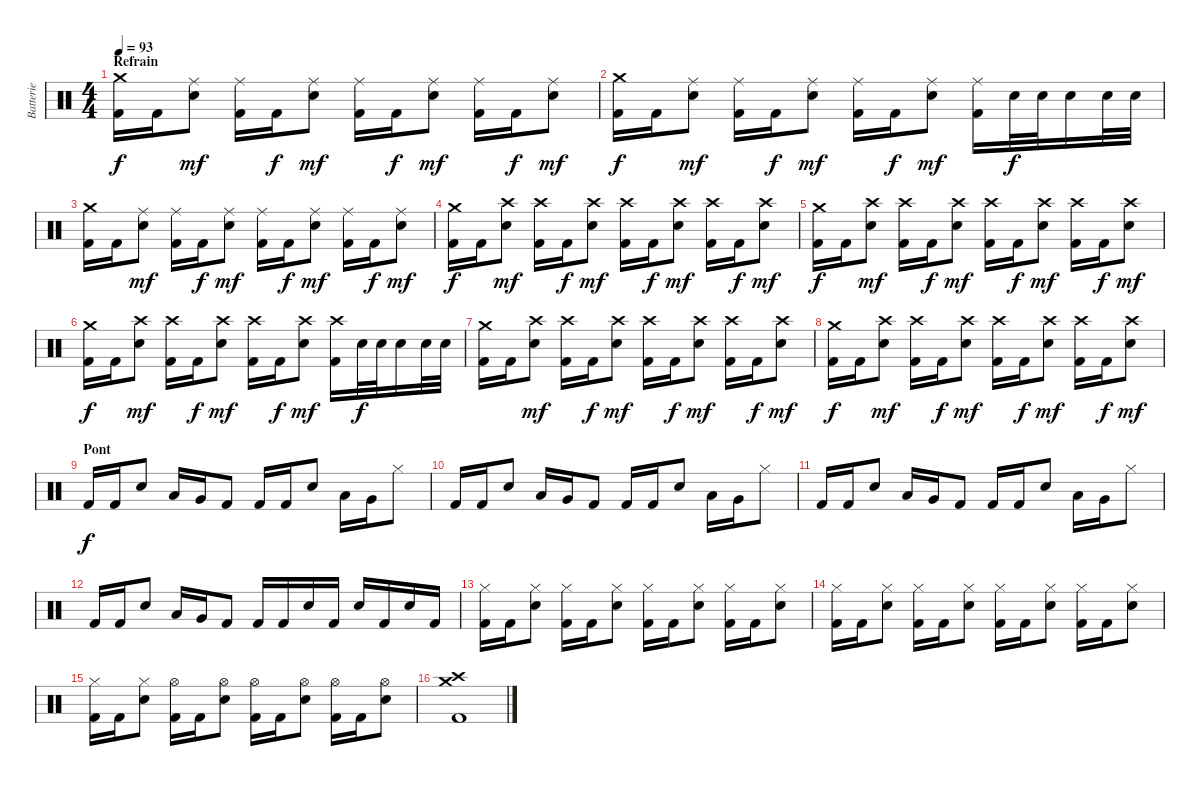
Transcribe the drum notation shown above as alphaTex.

\track ("Batterie" "Batterie") {instrument percussion}
\staff {score}
\articulation defaults
\ts (4 4)
\section ("" "Refrain")
\tempo 93
\clef neutral
\ks c
("Crash medium (hit)" "Kick (hit) 2").16{dy f} "Kick (hit) 2".16 ("Ride (middle)" "Snare (hit) 2").8{dy mf} ("Ride (middle)" "Kick (hit) 2").16 "Kick (hit) 2".16{dy f} ("Ride (middle)" "Snare (hit) 2").8{dy mf} ("Ride (middle)" "Kick (hit) 2").16 "Kick (hit) 2".16{dy f} ("Ride (middle)" "Snare (hit) 2").8{dy mf} ("Ride (middle)" "Kick (hit) 2").16 "Kick (hit) 2".16{dy f} ("Ride (middle)" "Snare (hit) 2").8{dy mf} |
("Crash medium (hit)" "Kick (hit) 2").16{dy f} "Kick (hit) 2".16 ("Ride (middle)" "Snare (hit) 2").8{dy mf} ("Ride (middle)" "Kick (hit) 2").16 "Kick (hit) 2".16{dy f} ("Ride (middle)" "Snare (hit) 2").8{dy mf} ("Ride (middle)" "Kick (hit) 2").16 "Kick (hit) 2".16{dy f} ("Ride (middle)" "Snare (hit) 2").8{dy mf} ("Ride (middle)" "Kick (hit) 2").16 "Snare (hit) 2".32{dy f} "Snare (hit) 2".32 "Snare (hit) 2".16 "Snare (hit) 2".32 "Snare (hit) 2".32 |
("Crash medium (hit)" "Kick (hit) 2").16 "Kick (hit) 2".16 ("Ride (middle)" "Snare (hit) 2").8{dy mf} ("Ride (middle)" "Kick (hit) 2").16 "Kick (hit) 2".16{dy f} ("Ride (middle)" "Snare (hit) 2").8{dy mf} ("Ride (middle)" "Kick (hit) 2").16 "Kick (hit) 2".16{dy f} ("Ride (middle)" "Snare (hit) 2").8{dy mf} ("Ride (middle)" "Kick (hit) 2").16 "Kick (hit) 2".16{dy f} ("Ride (middle)" "Snare (hit) 2").8{dy mf} |
("Crash medium (hit)" "Kick (hit) 2").16{dy f} "Kick (hit) 2".16 ("Crash high (hit)" "Snare (hit) 2").8{dy mf} ("Crash high (hit)" "Kick (hit) 2").16 "Kick (hit) 2".16{dy f} ("Crash high (hit)" "Snare (hit) 2").8{dy mf} ("Crash high (hit)" "Kick (hit) 2").16 "Kick (hit) 2".16{dy f} ("Crash high (hit)" "Snare (hit) 2").8{dy mf} ("Crash high (hit)" "Kick (hit) 2").16 "Kick (hit) 2".16{dy f} ("Crash high (hit)" "Snare (hit) 2").8{dy mf} |
("Crash medium (hit)" "Kick (hit) 2").16{dy f} "Kick (hit) 2".16 ("Crash high (hit)" "Snare (hit) 2").8{dy mf} ("Crash high (hit)" "Kick (hit) 2").16 "Kick (hit) 2".16{dy f} ("Crash high (hit)" "Snare (hit) 2").8{dy mf} ("Crash high (hit)" "Kick (hit) 2").16 "Kick (hit) 2".16{dy f} ("Crash high (hit)" "Snare (hit) 2").8{dy mf} ("Crash high (hit)" "Kick (hit) 2").16 "Kick (hit) 2".16{dy f} ("Crash high (hit)" "Snare (hit) 2").8{dy mf} |
("Crash medium (hit)" "Kick (hit) 2").16{dy f} "Kick (hit) 2".16 ("Crash high (hit)" "Snare (hit) 2").8{dy mf} ("Crash high (hit)" "Kick (hit) 2").16 "Kick (hit) 2".16{dy f} ("Crash high (hit)" "Snare (hit) 2").8{dy mf} ("Crash high (hit)" "Kick (hit) 2").16 "Kick (hit) 2".16{dy f} ("Crash high (hit)" "Snare (hit) 2").8{dy mf} ("Crash high (hit)" "Kick (hit) 2").16 "Snare (hit) 2".32{dy f} "Snare (hit) 2".32 "Snare (hit) 2".16 "Snare (hit) 2".32 "Snare (hit) 2".32 |
("Crash medium (hit)" "Kick (hit) 2").16 "Kick (hit) 2".16 ("Crash high (hit)" "Snare (hit) 2").8{dy mf} ("Crash high (hit)" "Kick (hit) 2").16 "Kick (hit) 2".16{dy f} ("Crash high (hit)" "Snare (hit) 2").8{dy mf} ("Crash high (hit)" "Kick (hit) 2").16 "Kick (hit) 2".16{dy f} ("Crash high (hit)" "Snare (hit) 2").8{dy mf} ("Crash high (hit)" "Kick (hit) 2").16 "Kick (hit) 2".16{dy f} ("Crash high (hit)" "Snare (hit) 2").8{dy mf} |
("Crash medium (hit)" "Kick (hit) 2").16{dy f} "Kick (hit) 2".16 ("Crash high (hit)" "Snare (hit) 2").8{dy mf} ("Crash high (hit)" "Kick (hit) 2").16 "Kick (hit) 2".16{dy f} ("Crash high (hit)" "Snare (hit) 2").8{dy mf} ("Crash high (hit)" "Kick (hit) 2").16 "Kick (hit) 2".16{dy f} ("Crash high (hit)" "Snare (hit) 2").8{dy mf} ("Crash high (hit)" "Kick (hit) 2").16 "Kick (hit) 2".16{dy f} ("Crash high (hit)" "Snare (hit) 2").8{dy mf} |
\section ("" "Pont")
"Kick (hit) 2".16{dy f} "Kick (hit) 2".16 "Snare (hit) 2".8 "Low Tom (hit)".16 "Very Low Tom (hit)".16 "Kick (hit) 2".8 "Kick (hit) 2".16 "Kick (hit) 2".16 "Snare (hit) 2".8 "Low Tom (hit)".16 "Very Low Tom (hit)".16 "Hi-Hat (closed)".8 |
"Kick (hit) 2".16 "Kick (hit) 2".16 "Snare (hit) 2".8 "Low Tom (hit)".16 "Very Low Tom (hit)".16 "Kick (hit) 2".8 "Kick (hit) 2".16 "Kick (hit) 2".16 "Snare (hit) 2".8 "Low Tom (hit)".16 "Very Low Tom (hit)".16 "Hi-Hat (closed)".8 |
"Kick (hit) 2".16 "Kick (hit) 2".16 "Snare (hit) 2".8 "Low Tom (hit)".16 "Very Low Tom (hit)".16 "Kick (hit) 2".8 "Kick (hit) 2".16 "Kick (hit) 2".16 "Snare (hit) 2".8 "Low Tom (hit)".16 "Very Low Tom (hit)".16 "Hi-Hat (closed)".8 |
"Kick (hit) 2".16 "Kick (hit) 2".16 "Snare (hit) 2".8 "Low Tom (hit)".16 "Very Low Tom (hit)".16 "Kick (hit) 2".8 "Kick (hit) 2".16 "Kick (hit) 2".16 "Snare (hit) 2".16 "Kick (hit) 2".16 "Snare (hit) 2".16 "Kick (hit) 2".16 "Snare (hit) 2".16 "Kick (hit) 2".16 |
("Hi-Hat (closed)" "Kick (hit) 2").16 "Kick (hit) 2".16 ("Hi-Hat (closed)" "Snare (hit) 2").8 ("Hi-Hat (closed)" "Kick (hit) 2").16 "Kick (hit) 2".16 ("Hi-Hat (closed)" "Snare (hit) 2").8 ("Hi-Hat (closed)" "Kick (hit) 2").16 "Kick (hit) 2".16 ("Hi-Hat (closed)" "Snare (hit) 2").8 ("Hi-Hat (closed)" "Kick (hit) 2").16 "Kick (hit) 2".16 ("Hi-Hat (closed)" "Snare (hit) 2").8 |
("Hi-Hat (closed)" "Kick (hit) 2").16 "Kick (hit) 2".16 ("Hi-Hat (closed)" "Snare (hit) 2").8 ("Hi-Hat (closed)" "Kick (hit) 2").16 "Kick (hit) 2".16 ("Hi-Hat (closed)" "Snare (hit) 2").8 ("Hi-Hat (closed)" "Kick (hit) 2").16 "Kick (hit) 2".16 ("Hi-Hat (closed)" "Snare (hit) 2").8 ("Hi-Hat (closed)" "Kick (hit) 2").16 "Kick (hit) 2".16 ("Hi-Hat (closed)" "Snare (hit) 2").8 |
("Hi-Hat (closed)" "Kick (hit) 2").16 "Kick (hit) 2".16 ("Hi-Hat (closed)" "Snare (hit) 2").8 ("Hi-Hat (open)" "Kick (hit) 2").16 "Kick (hit) 2".16 ("Hi-Hat (open)" "Snare (hit) 2").8 ("Hi-Hat (open)" "Kick (hit) 2").16 "Kick (hit) 2".16 ("Hi-Hat (open)" "Snare (hit) 2").8 ("Hi-Hat (open)" "Kick (hit) 2").16 "Kick (hit) 2".16 ("Hi-Hat (open)" "Snare (hit) 2").8 |
("Crash medium (hit)" "Crash high (hit)" "Kick (hit) 2").1
